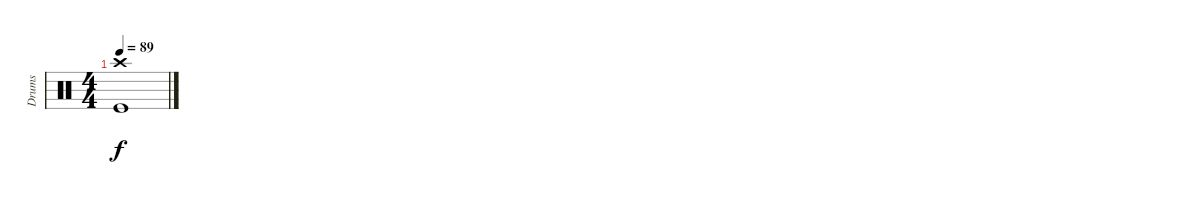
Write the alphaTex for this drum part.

\track ("Drums" "Drums") {instrument percussion}
\staff {score}
\articulation defaults
\ts (4 4)
\tempo 89
\clef neutral
\ks c
("Crash high (hit)" "Kick (hit)").1{dy f}
